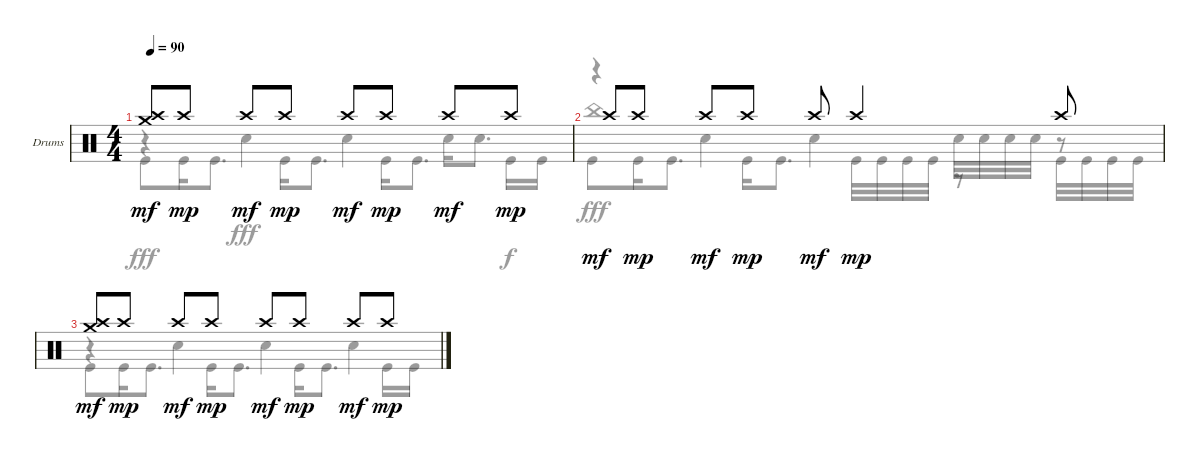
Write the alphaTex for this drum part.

\defaultSystemsLayout 4
\bracketExtendMode groupsimilarinstruments
\firstSystemTrackNameOrientation horizontal
\otherSystemsTrackNameOrientation horizontal
\track ("Drumkit" "Drums") {instrument percussion}
\staff {score}
\articulation defaults
\voice
\ts (4 4)
\tempo 90
\clef neutral
\ks c
("Crash high (hit)" "Crash medium (hit)").8{dy mf} "Crash high (hit)".8{dy mp} "Crash high (hit)".8{dy mf} "Crash high (hit)".8{dy mp} "Crash high (hit)".8{dy mf} "Crash high (hit)".8{dy mp} "Crash high (hit)".8{dy mf} "Crash high (hit)".8{dy mp} |
"Crash high (hit)".8{dy mf} "Crash high (hit)".8{dy mp} "Crash high (hit)".8{dy mf} "Crash high (hit)".8{dy mp} "Crash high (hit)".8{dy mf} "Crash high (hit)".4{dy mp} "Crash high (hit)".8 |
("Crash high (hit)" "Crash medium (hit)").8{dy mf} "Crash high (hit)".8{dy mp} "Crash high (hit)".8{dy mf} "Crash high (hit)".8{dy mp} "Crash high (hit)".8{dy mf} "Crash high (hit)".8{dy mp} "Crash high (hit)".8{dy mf} "Crash high (hit)".8{dy mp}
\voice
\clef neutral
\ottava regular
\simile none
\ks c
r.4{dy fff} "Snare (hit) 2".4 "Snare (hit) 2".4 "Snare (hit) 2".16 "Snare (hit) 2".8{d} |
r.4 "Snare (hit) 2".4 "Snare (hit) 2".4 "Snare (hit) 2".32 "Snare (hit) 2".32 "Snare (hit) 2".32 "Snare (hit) 2".32 r.8 |
r.4 "Snare (hit) 2".4 "Snare (hit) 2".4 "Snare (hit) 2".4
\voice
\clef neutral
\ottava regular
\simile none
\ks c "Kick (hit)".8{dy fff} "Kick (hit)".16 "Kick (hit)".8{d} "Kick (hit)".16 "Kick (hit)".8{d} "Kick (hit)".16 "Kick (hit)".8{d} "Kick (hit)".16{dy f} "Kick (hit)".16
|
"Kick (hit)".8{dy fff} "Kick (hit)".16 "Kick (hit)".8{d} "Kick (hit)".16 "Kick (hit)".8{d} "Kick (hit)".32 "Kick (hit)".32 "Kick (hit)".32 "Kick (hit)".32 r.8 "Kick (hit)".32 "Kick (hit)".32 "Kick (hit)".32 "Kick (hit)".32 |
"Kick (hit)".8 "Kick (hit)".16 "Kick (hit)".8{d} "Kick (hit)".16 "Kick (hit)".8{d} "Kick (hit)".16 "Kick (hit)".8{d} "Kick (hit)".16 "Kick (hit)".16
\voice
\clef neutral
\ottava regular
\simile none
\ks c
|
"China (hit)".1 |
